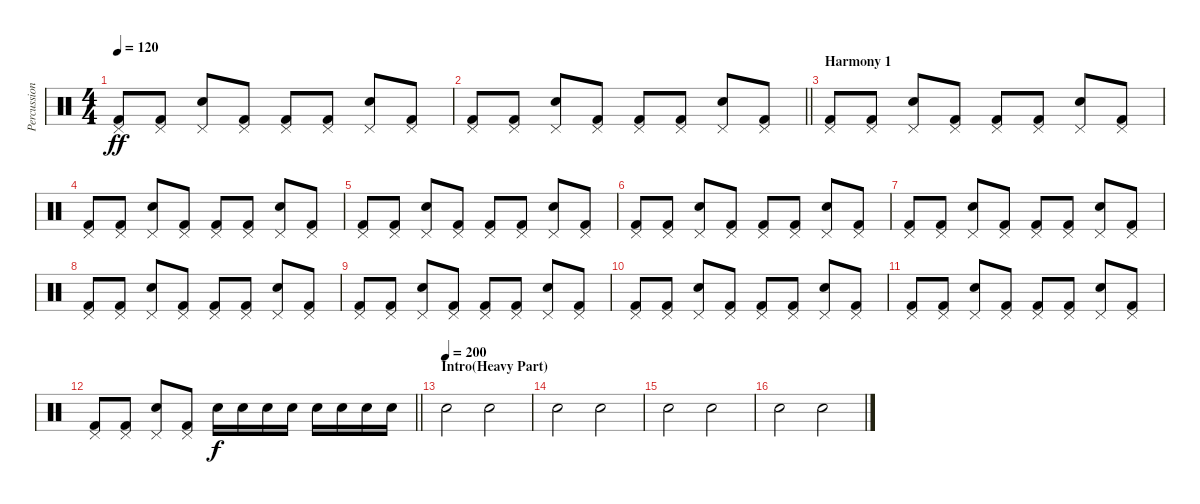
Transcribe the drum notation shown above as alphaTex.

\track ("Percussion" "Percussion") {instrument percussion}
\staff {score}
\articulation defaults
\ts (4 4)
\tempo 120
\clef neutral
\ks c
("Kick (hit) 2" "Pedal Hi-Hat (hit)").8{dy ff} ("Kick (hit) 2" "Pedal Hi-Hat (hit)").8 ("Snare (hit) 2" "Pedal Hi-Hat (hit)").8 ("Kick (hit) 2" "Pedal Hi-Hat (hit)").8 ("Kick (hit) 2" "Pedal Hi-Hat (hit)").8 ("Kick (hit) 2" "Pedal Hi-Hat (hit)").8 ("Snare (hit) 2" "Pedal Hi-Hat (hit)").8 ("Kick (hit) 2" "Pedal Hi-Hat (hit)").8 |
\barLineRight lightlight
("Kick (hit) 2" "Pedal Hi-Hat (hit)").8 ("Kick (hit) 2" "Pedal Hi-Hat (hit)").8 ("Snare (hit) 2" "Pedal Hi-Hat (hit)").8 ("Kick (hit) 2" "Pedal Hi-Hat (hit)").8 ("Kick (hit) 2" "Pedal Hi-Hat (hit)").8 ("Kick (hit) 2" "Pedal Hi-Hat (hit)").8 ("Snare (hit) 2" "Pedal Hi-Hat (hit)").8 ("Kick (hit) 2" "Pedal Hi-Hat (hit)").8 |
\section ("" "Harmony 1")
("Kick (hit) 2" "Pedal Hi-Hat (hit)").8 ("Kick (hit) 2" "Pedal Hi-Hat (hit)").8 ("Snare (hit) 2" "Pedal Hi-Hat (hit)").8 ("Kick (hit) 2" "Pedal Hi-Hat (hit)").8 ("Kick (hit) 2" "Pedal Hi-Hat (hit)").8 ("Kick (hit) 2" "Pedal Hi-Hat (hit)").8 ("Snare (hit) 2" "Pedal Hi-Hat (hit)").8 ("Kick (hit) 2" "Pedal Hi-Hat (hit)").8 |
("Kick (hit) 2" "Pedal Hi-Hat (hit)").8 ("Kick (hit) 2" "Pedal Hi-Hat (hit)").8 ("Snare (hit) 2" "Pedal Hi-Hat (hit)").8 ("Kick (hit) 2" "Pedal Hi-Hat (hit)").8 ("Kick (hit) 2" "Pedal Hi-Hat (hit)").8 ("Kick (hit) 2" "Pedal Hi-Hat (hit)").8 ("Snare (hit) 2" "Pedal Hi-Hat (hit)").8 ("Kick (hit) 2" "Pedal Hi-Hat (hit)").8 |
("Kick (hit) 2" "Pedal Hi-Hat (hit)").8 ("Kick (hit) 2" "Pedal Hi-Hat (hit)").8 ("Snare (hit) 2" "Pedal Hi-Hat (hit)").8 ("Kick (hit) 2" "Pedal Hi-Hat (hit)").8 ("Kick (hit) 2" "Pedal Hi-Hat (hit)").8 ("Kick (hit) 2" "Pedal Hi-Hat (hit)").8 ("Snare (hit) 2" "Pedal Hi-Hat (hit)").8 ("Kick (hit) 2" "Pedal Hi-Hat (hit)").8 |
("Kick (hit) 2" "Pedal Hi-Hat (hit)").8 ("Kick (hit) 2" "Pedal Hi-Hat (hit)").8 ("Snare (hit) 2" "Pedal Hi-Hat (hit)").8 ("Kick (hit) 2" "Pedal Hi-Hat (hit)").8 ("Kick (hit) 2" "Pedal Hi-Hat (hit)").8 ("Kick (hit) 2" "Pedal Hi-Hat (hit)").8 ("Snare (hit) 2" "Pedal Hi-Hat (hit)").8 ("Kick (hit) 2" "Pedal Hi-Hat (hit)").8 |
("Kick (hit) 2" "Pedal Hi-Hat (hit)").8 ("Kick (hit) 2" "Pedal Hi-Hat (hit)").8 ("Snare (hit) 2" "Pedal Hi-Hat (hit)").8 ("Kick (hit) 2" "Pedal Hi-Hat (hit)").8 ("Kick (hit) 2" "Pedal Hi-Hat (hit)").8 ("Kick (hit) 2" "Pedal Hi-Hat (hit)").8 ("Snare (hit) 2" "Pedal Hi-Hat (hit)").8 ("Kick (hit) 2" "Pedal Hi-Hat (hit)").8 |
("Kick (hit) 2" "Pedal Hi-Hat (hit)").8 ("Kick (hit) 2" "Pedal Hi-Hat (hit)").8 ("Snare (hit) 2" "Pedal Hi-Hat (hit)").8 ("Kick (hit) 2" "Pedal Hi-Hat (hit)").8 ("Kick (hit) 2" "Pedal Hi-Hat (hit)").8 ("Kick (hit) 2" "Pedal Hi-Hat (hit)").8 ("Snare (hit) 2" "Pedal Hi-Hat (hit)").8 ("Kick (hit) 2" "Pedal Hi-Hat (hit)").8 |
("Kick (hit) 2" "Pedal Hi-Hat (hit)").8 ("Kick (hit) 2" "Pedal Hi-Hat (hit)").8 ("Snare (hit) 2" "Pedal Hi-Hat (hit)").8 ("Kick (hit) 2" "Pedal Hi-Hat (hit)").8 ("Kick (hit) 2" "Pedal Hi-Hat (hit)").8 ("Kick (hit) 2" "Pedal Hi-Hat (hit)").8 ("Snare (hit) 2" "Pedal Hi-Hat (hit)").8 ("Kick (hit) 2" "Pedal Hi-Hat (hit)").8 |
("Kick (hit) 2" "Pedal Hi-Hat (hit)").8 ("Kick (hit) 2" "Pedal Hi-Hat (hit)").8 ("Snare (hit) 2" "Pedal Hi-Hat (hit)").8 ("Kick (hit) 2" "Pedal Hi-Hat (hit)").8 ("Kick (hit) 2" "Pedal Hi-Hat (hit)").8 ("Kick (hit) 2" "Pedal Hi-Hat (hit)").8 ("Snare (hit) 2" "Pedal Hi-Hat (hit)").8 ("Kick (hit) 2" "Pedal Hi-Hat (hit)").8 |
("Kick (hit) 2" "Pedal Hi-Hat (hit)").8 ("Kick (hit) 2" "Pedal Hi-Hat (hit)").8 ("Snare (hit) 2" "Pedal Hi-Hat (hit)").8 ("Kick (hit) 2" "Pedal Hi-Hat (hit)").8 ("Kick (hit) 2" "Pedal Hi-Hat (hit)").8 ("Kick (hit) 2" "Pedal Hi-Hat (hit)").8 ("Snare (hit) 2" "Pedal Hi-Hat (hit)").8 ("Kick (hit) 2" "Pedal Hi-Hat (hit)").8 |
\barLineRight lightlight
("Kick (hit) 2" "Pedal Hi-Hat (hit)").8 ("Kick (hit) 2" "Pedal Hi-Hat (hit)").8 ("Snare (hit) 2" "Pedal Hi-Hat (hit)").8 ("Kick (hit) 2" "Pedal Hi-Hat (hit)").8 "Snare (hit) 2".16{dy f} "Snare (hit) 2".16 "Snare (hit) 2".16 "Snare (hit) 2".16 "Snare (hit) 2".16 "Snare (hit) 2".16 "Snare (hit) 2".16 "Snare (hit) 2".16 |
\section ("" "Intro(Heavy Part)")
\tempo (200)
"Snare (hit) 2".2 "Snare (hit) 2".2 |
"Snare (hit) 2".2 "Snare (hit) 2".2 |
"Snare (hit) 2".2 "Snare (hit) 2".2 |
"Snare (hit) 2".2 "Snare (hit) 2".2
